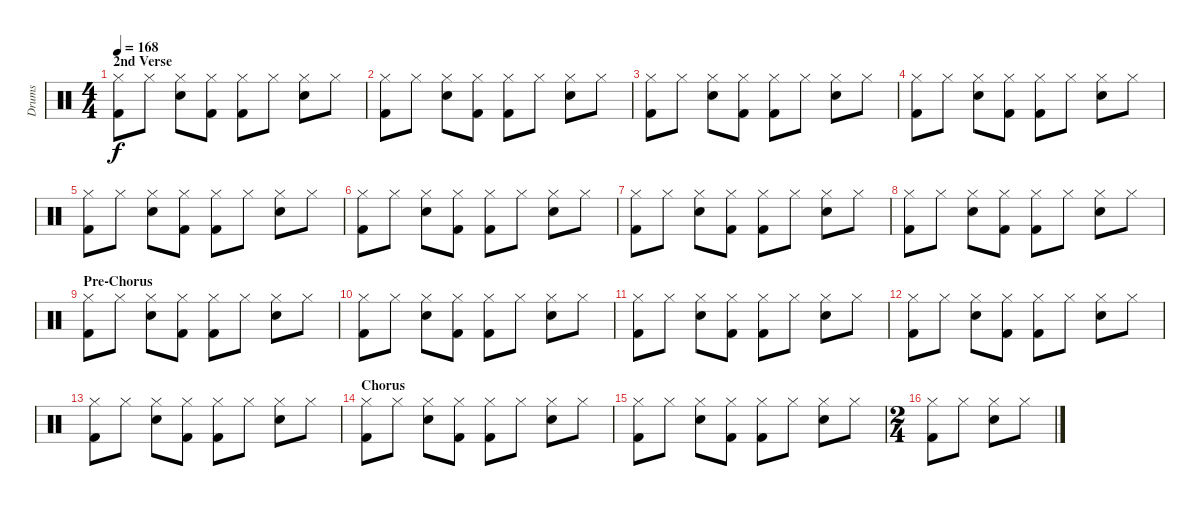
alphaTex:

\track ("Drums" "Drums") {instrument percussion}
\staff {score}
\articulation defaults
\ts (4 4)
\section ("" "2nd Verse")
\tempo 168
\clef neutral
\ks c
("Kick (hit) 2" "Hi-Hat (closed)").8{dy f} "Hi-Hat (closed)".8 ("Snare (hit) 2" "Hi-Hat (closed)").8 ("Kick (hit) 2" "Hi-Hat (closed)").8 ("Kick (hit) 2" "Hi-Hat (closed)").8 "Hi-Hat (closed)".8 ("Snare (hit) 2" "Hi-Hat (closed)").8 "Hi-Hat (closed)".8 |
("Kick (hit) 2" "Hi-Hat (closed)").8 "Hi-Hat (closed)".8 ("Snare (hit) 2" "Hi-Hat (closed)").8 ("Kick (hit) 2" "Hi-Hat (closed)").8 ("Kick (hit) 2" "Hi-Hat (closed)").8 "Hi-Hat (closed)".8 ("Snare (hit) 2" "Hi-Hat (closed)").8 "Hi-Hat (closed)".8 |
("Kick (hit) 2" "Hi-Hat (closed)").8 "Hi-Hat (closed)".8 ("Snare (hit) 2" "Hi-Hat (closed)").8 ("Kick (hit) 2" "Hi-Hat (closed)").8 ("Kick (hit) 2" "Hi-Hat (closed)").8 "Hi-Hat (closed)".8 ("Snare (hit) 2" "Hi-Hat (closed)").8 "Hi-Hat (closed)".8 |
("Kick (hit) 2" "Hi-Hat (closed)").8 "Hi-Hat (closed)".8 ("Snare (hit) 2" "Hi-Hat (closed)").8 ("Kick (hit) 2" "Hi-Hat (closed)").8 ("Kick (hit) 2" "Hi-Hat (closed)").8 "Hi-Hat (closed)".8 ("Snare (hit) 2" "Hi-Hat (closed)").8 "Hi-Hat (closed)".8 |
("Kick (hit) 2" "Hi-Hat (closed)").8 "Hi-Hat (closed)".8 ("Snare (hit) 2" "Hi-Hat (closed)").8 ("Kick (hit) 2" "Hi-Hat (closed)").8 ("Kick (hit) 2" "Hi-Hat (closed)").8 "Hi-Hat (closed)".8 ("Snare (hit) 2" "Hi-Hat (closed)").8 "Hi-Hat (closed)".8 |
("Kick (hit) 2" "Hi-Hat (closed)").8 "Hi-Hat (closed)".8 ("Snare (hit) 2" "Hi-Hat (closed)").8 ("Kick (hit) 2" "Hi-Hat (closed)").8 ("Kick (hit) 2" "Hi-Hat (closed)").8 "Hi-Hat (closed)".8 ("Snare (hit) 2" "Hi-Hat (closed)").8 "Hi-Hat (closed)".8 |
("Kick (hit) 2" "Hi-Hat (closed)").8 "Hi-Hat (closed)".8 ("Snare (hit) 2" "Hi-Hat (closed)").8 ("Kick (hit) 2" "Hi-Hat (closed)").8 ("Kick (hit) 2" "Hi-Hat (closed)").8 "Hi-Hat (closed)".8 ("Snare (hit) 2" "Hi-Hat (closed)").8 "Hi-Hat (closed)".8 |
("Kick (hit) 2" "Hi-Hat (closed)").8 "Hi-Hat (closed)".8 ("Snare (hit) 2" "Hi-Hat (closed)").8 ("Kick (hit) 2" "Hi-Hat (closed)").8 ("Kick (hit) 2" "Hi-Hat (closed)").8 "Hi-Hat (closed)".8 ("Snare (hit) 2" "Hi-Hat (closed)").8 "Hi-Hat (closed)".8 |
\section ("" "Pre-Chorus")
("Kick (hit) 2" "Hi-Hat (closed)").8 "Hi-Hat (closed)".8 ("Snare (hit) 2" "Hi-Hat (closed)").8 ("Kick (hit) 2" "Hi-Hat (closed)").8 ("Kick (hit) 2" "Hi-Hat (closed)").8 "Hi-Hat (closed)".8 ("Snare (hit) 2" "Hi-Hat (closed)").8 "Hi-Hat (closed)".8 |
("Kick (hit) 2" "Hi-Hat (closed)").8 "Hi-Hat (closed)".8 ("Snare (hit) 2" "Hi-Hat (closed)").8 ("Kick (hit) 2" "Hi-Hat (closed)").8 ("Kick (hit) 2" "Hi-Hat (closed)").8 "Hi-Hat (closed)".8 ("Snare (hit) 2" "Hi-Hat (closed)").8 "Hi-Hat (closed)".8 |
("Kick (hit) 2" "Hi-Hat (closed)").8 "Hi-Hat (closed)".8 ("Snare (hit) 2" "Hi-Hat (closed)").8 ("Kick (hit) 2" "Hi-Hat (closed)").8 ("Kick (hit) 2" "Hi-Hat (closed)").8 "Hi-Hat (closed)".8 ("Snare (hit) 2" "Hi-Hat (closed)").8 "Hi-Hat (closed)".8 |
("Kick (hit) 2" "Hi-Hat (closed)").8 "Hi-Hat (closed)".8 ("Snare (hit) 2" "Hi-Hat (closed)").8 ("Kick (hit) 2" "Hi-Hat (closed)").8 ("Kick (hit) 2" "Hi-Hat (closed)").8 "Hi-Hat (closed)".8 ("Snare (hit) 2" "Hi-Hat (closed)").8 "Hi-Hat (closed)".8 |
("Kick (hit) 2" "Hi-Hat (closed)").8 "Hi-Hat (closed)".8 ("Snare (hit) 2" "Hi-Hat (closed)").8 ("Kick (hit) 2" "Hi-Hat (closed)").8 ("Kick (hit) 2" "Hi-Hat (closed)").8 "Hi-Hat (closed)".8 ("Snare (hit) 2" "Hi-Hat (closed)").8 "Hi-Hat (closed)".8 |
\section ("" "Chorus")
("Kick (hit) 2" "Hi-Hat (closed)").8 "Hi-Hat (closed)".8 ("Snare (hit) 2" "Hi-Hat (closed)").8 ("Kick (hit) 2" "Hi-Hat (closed)").8 ("Kick (hit) 2" "Hi-Hat (closed)").8 "Hi-Hat (closed)".8 ("Snare (hit) 2" "Hi-Hat (closed)").8 "Hi-Hat (closed)".8 |
("Kick (hit) 2" "Hi-Hat (closed)").8 "Hi-Hat (closed)".8 ("Snare (hit) 2" "Hi-Hat (closed)").8 ("Kick (hit) 2" "Hi-Hat (closed)").8 ("Kick (hit) 2" "Hi-Hat (closed)").8 "Hi-Hat (closed)".8 ("Snare (hit) 2" "Hi-Hat (closed)").8 "Hi-Hat (closed)".8 |
\ts (2 4)
("Kick (hit) 2" "Hi-Hat (closed)").8 "Hi-Hat (closed)".8 ("Snare (hit) 2" "Hi-Hat (closed)").8 "Hi-Hat (closed)".8
